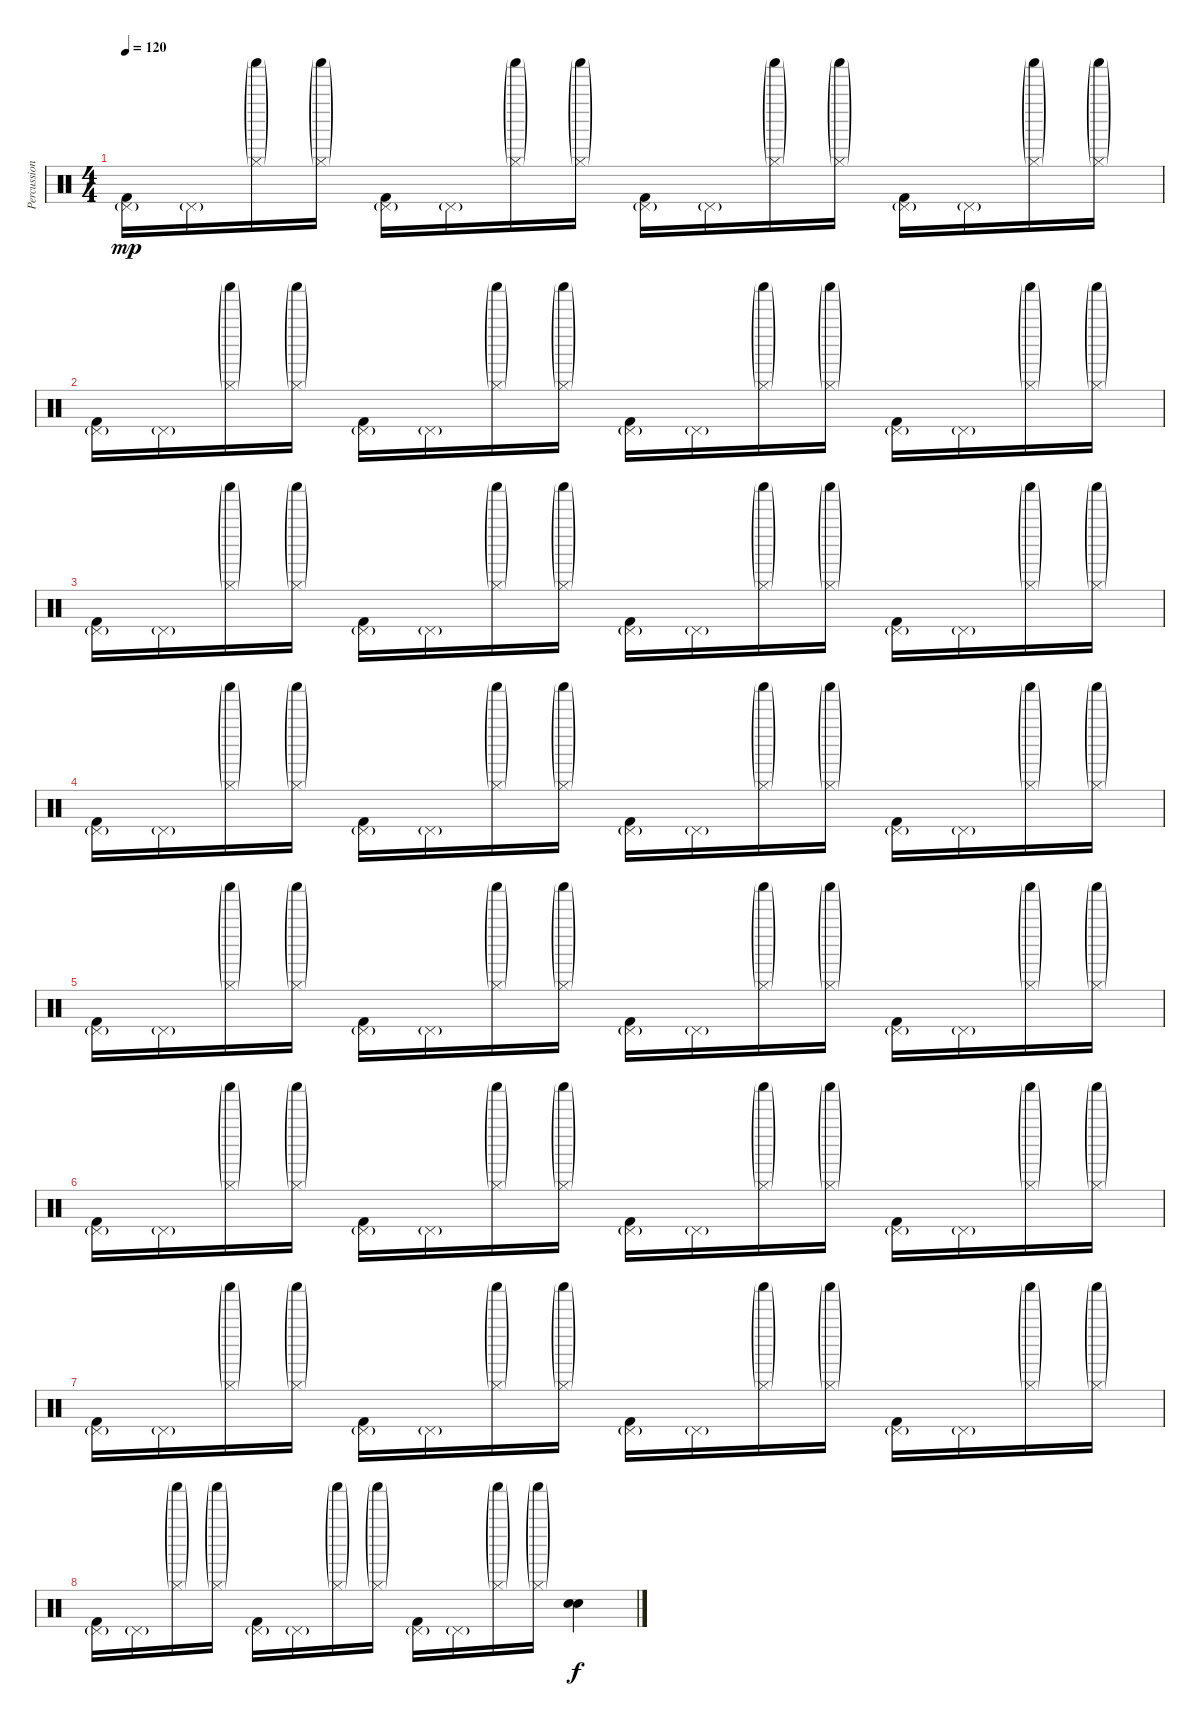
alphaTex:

\track ("Percussion" "Percussion") {instrument percussion}
\staff {score}
\articulation defaults
\ts (4 4)
\tempo 120
\clef neutral
\ks c
("Pedal Hi-Hat (hit)"{g} "Kick (hit) 2").16{dy mp} "Pedal Hi-Hat (hit)"{g}.16 ("Hi-Hat (closed)"{g} "Shaker (hit)"{g}).16 ("Hi-Hat (closed)"{g} "Shaker (hit)"{g}).16 ("Pedal Hi-Hat (hit)"{g} "Kick (hit) 2").16 "Pedal Hi-Hat (hit)"{g}.16 ("Hi-Hat (closed)"{g} "Shaker (hit)"{g}).16 ("Hi-Hat (closed)"{g} "Shaker (hit)"{g}).16 ("Pedal Hi-Hat (hit)"{g} "Kick (hit) 2").16 "Pedal Hi-Hat (hit)"{g}.16 ("Hi-Hat (closed)"{g} "Shaker (hit)"{g}).16 ("Hi-Hat (closed)"{g} "Shaker (hit)"{g}).16 ("Pedal Hi-Hat (hit)"{g} "Kick (hit) 2").16 "Pedal Hi-Hat (hit)"{g}.16 ("Hi-Hat (closed)"{g} "Shaker (hit)"{g}).16 ("Hi-Hat (closed)"{g} "Shaker (hit)"{g}).16 |
("Pedal Hi-Hat (hit)"{g} "Kick (hit) 2").16 "Pedal Hi-Hat (hit)"{g}.16 ("Hi-Hat (closed)"{g} "Shaker (hit)"{g}).16 ("Hi-Hat (closed)"{g} "Shaker (hit)"{g}).16 ("Pedal Hi-Hat (hit)"{g} "Kick (hit) 2").16 "Pedal Hi-Hat (hit)"{g}.16 ("Hi-Hat (closed)"{g} "Shaker (hit)"{g}).16 ("Hi-Hat (closed)"{g} "Shaker (hit)"{g}).16 ("Pedal Hi-Hat (hit)"{g} "Kick (hit) 2").16 "Pedal Hi-Hat (hit)"{g}.16 ("Hi-Hat (closed)"{g} "Shaker (hit)"{g}).16 ("Hi-Hat (closed)"{g} "Shaker (hit)"{g}).16 ("Pedal Hi-Hat (hit)"{g} "Kick (hit) 2").16 "Pedal Hi-Hat (hit)"{g}.16 ("Hi-Hat (closed)"{g} "Shaker (hit)"{g}).16 ("Hi-Hat (closed)"{g} "Shaker (hit)"{g}).16 |
("Pedal Hi-Hat (hit)"{g} "Kick (hit) 2").16 "Pedal Hi-Hat (hit)"{g}.16 ("Hi-Hat (closed)"{g} "Shaker (hit)"{g}).16 ("Hi-Hat (closed)"{g} "Shaker (hit)"{g}).16 ("Pedal Hi-Hat (hit)"{g} "Kick (hit) 2").16 "Pedal Hi-Hat (hit)"{g}.16 ("Hi-Hat (closed)"{g} "Shaker (hit)"{g}).16 ("Hi-Hat (closed)"{g} "Shaker (hit)"{g}).16 ("Pedal Hi-Hat (hit)"{g} "Kick (hit) 2").16 "Pedal Hi-Hat (hit)"{g}.16 ("Hi-Hat (closed)"{g} "Shaker (hit)"{g}).16 ("Hi-Hat (closed)"{g} "Shaker (hit)"{g}).16 ("Pedal Hi-Hat (hit)"{g} "Kick (hit) 2").16 "Pedal Hi-Hat (hit)"{g}.16 ("Hi-Hat (closed)"{g} "Shaker (hit)"{g}).16 ("Hi-Hat (closed)"{g} "Shaker (hit)"{g}).16 |
("Pedal Hi-Hat (hit)"{g} "Kick (hit) 2").16 "Pedal Hi-Hat (hit)"{g}.16 ("Hi-Hat (closed)"{g} "Shaker (hit)"{g}).16 ("Hi-Hat (closed)"{g} "Shaker (hit)"{g}).16 ("Pedal Hi-Hat (hit)"{g} "Kick (hit) 2").16 "Pedal Hi-Hat (hit)"{g}.16 ("Hi-Hat (closed)"{g} "Shaker (hit)"{g}).16 ("Hi-Hat (closed)"{g} "Shaker (hit)"{g}).16 ("Pedal Hi-Hat (hit)"{g} "Kick (hit) 2").16 "Pedal Hi-Hat (hit)"{g}.16 ("Hi-Hat (closed)"{g} "Shaker (hit)"{g}).16 ("Hi-Hat (closed)"{g} "Shaker (hit)"{g}).16 ("Pedal Hi-Hat (hit)"{g} "Kick (hit) 2").16 "Pedal Hi-Hat (hit)"{g}.16 ("Hi-Hat (closed)"{g} "Shaker (hit)"{g}).16 ("Hi-Hat (closed)"{g} "Shaker (hit)"{g}).16 |
("Pedal Hi-Hat (hit)"{g} "Kick (hit) 2").16 "Pedal Hi-Hat (hit)"{g}.16 ("Hi-Hat (closed)"{g} "Shaker (hit)"{g}).16 ("Hi-Hat (closed)"{g} "Shaker (hit)"{g}).16 ("Pedal Hi-Hat (hit)"{g} "Kick (hit) 2").16 "Pedal Hi-Hat (hit)"{g}.16 ("Hi-Hat (closed)"{g} "Shaker (hit)"{g}).16 ("Hi-Hat (closed)"{g} "Shaker (hit)"{g}).16 ("Pedal Hi-Hat (hit)"{g} "Kick (hit) 2").16 "Pedal Hi-Hat (hit)"{g}.16 ("Hi-Hat (closed)"{g} "Shaker (hit)"{g}).16 ("Hi-Hat (closed)"{g} "Shaker (hit)"{g}).16 ("Pedal Hi-Hat (hit)"{g} "Kick (hit) 2").16 "Pedal Hi-Hat (hit)"{g}.16 ("Hi-Hat (closed)"{g} "Shaker (hit)"{g}).16 ("Hi-Hat (closed)"{g} "Shaker (hit)"{g}).16 |
("Pedal Hi-Hat (hit)"{g} "Kick (hit) 2").16 "Pedal Hi-Hat (hit)"{g}.16 ("Hi-Hat (closed)"{g} "Shaker (hit)"{g}).16 ("Hi-Hat (closed)"{g} "Shaker (hit)"{g}).16 ("Pedal Hi-Hat (hit)"{g} "Kick (hit) 2").16 "Pedal Hi-Hat (hit)"{g}.16 ("Hi-Hat (closed)"{g} "Shaker (hit)"{g}).16 ("Hi-Hat (closed)"{g} "Shaker (hit)"{g}).16 ("Pedal Hi-Hat (hit)"{g} "Kick (hit) 2").16 "Pedal Hi-Hat (hit)"{g}.16 ("Hi-Hat (closed)"{g} "Shaker (hit)"{g}).16 ("Hi-Hat (closed)"{g} "Shaker (hit)"{g}).16 ("Pedal Hi-Hat (hit)"{g} "Kick (hit) 2").16 "Pedal Hi-Hat (hit)"{g}.16 ("Hi-Hat (closed)"{g} "Shaker (hit)"{g}).16 ("Hi-Hat (closed)"{g} "Shaker (hit)"{g}).16 |
("Pedal Hi-Hat (hit)"{g} "Kick (hit) 2").16 "Pedal Hi-Hat (hit)"{g}.16 ("Hi-Hat (closed)"{g} "Shaker (hit)"{g}).16 ("Hi-Hat (closed)"{g} "Shaker (hit)"{g}).16 ("Pedal Hi-Hat (hit)"{g} "Kick (hit) 2").16 "Pedal Hi-Hat (hit)"{g}.16 ("Hi-Hat (closed)"{g} "Shaker (hit)"{g}).16 ("Hi-Hat (closed)"{g} "Shaker (hit)"{g}).16 ("Pedal Hi-Hat (hit)"{g} "Kick (hit) 2").16 "Pedal Hi-Hat (hit)"{g}.16 ("Hi-Hat (closed)"{g} "Shaker (hit)"{g}).16 ("Hi-Hat (closed)"{g} "Shaker (hit)"{g}).16 ("Pedal Hi-Hat (hit)"{g} "Kick (hit) 2").16 "Pedal Hi-Hat (hit)"{g}.16 ("Hi-Hat (closed)"{g} "Shaker (hit)"{g}).16 ("Hi-Hat (closed)"{g} "Shaker (hit)"{g}).16 |
("Pedal Hi-Hat (hit)"{g} "Kick (hit) 2").16 "Pedal Hi-Hat (hit)"{g}.16 ("Hi-Hat (closed)"{g} "Shaker (hit)"{g}).16 ("Hi-Hat (closed)"{g} "Shaker (hit)"{g}).16 ("Pedal Hi-Hat (hit)"{g} "Kick (hit) 2").16 "Pedal Hi-Hat (hit)"{g}.16 ("Hi-Hat (closed)"{g} "Shaker (hit)"{g}).16 ("Hi-Hat (closed)"{g} "Shaker (hit)"{g}).16 ("Pedal Hi-Hat (hit)"{g} "Kick (hit) 2").16 "Pedal Hi-Hat (hit)"{g}.16 ("Hi-Hat (closed)"{g} "Shaker (hit)"{g}).16 ("Hi-Hat (closed)"{g} "Shaker (hit)"{g}).16 ("Electric Snare (hit)" "Snare (hit) 2").4{dy f}
